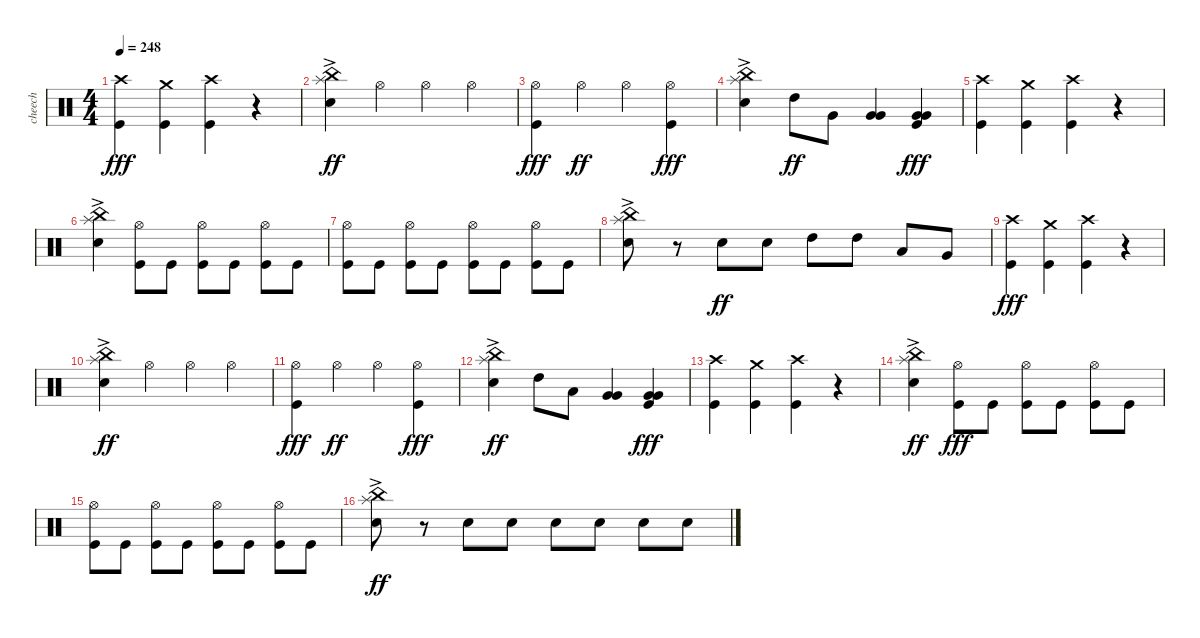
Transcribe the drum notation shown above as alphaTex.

\track ("cheech" "cheech") {instrument percussion}
\staff {score}
\articulation defaults
\ts (4 4)
\tempo 248
\clef neutral
\ks c
("Crash high (hit)" "Kick (hit)").4{dy fff} ("Crash medium (hit)" "Kick (hit)").4 ("Crash high (hit)" "Kick (hit)").4 r.4 |
("China (hit)"{ac} "Splash (hit)"{ac} "Electric Snare (hit)").4{dy ff} "Hi-Hat (open)".4 "Hi-Hat (open)".4 "Hi-Hat (open)".4 |
("Hi-Hat (open)" "Kick (hit)").4{dy fff} "Hi-Hat (open)".4{dy ff} "Hi-Hat (open)".4 ("Hi-Hat (open)" "Kick (hit)").4{dy fff} |
("China (hit)"{ac} "Splash (hit)"{ac} "Electric Snare (hit)").4 "High Tom (hit)".8{dy ff} "Very Low Tom (hit)".8 ("Very Low Tom (hit)" "Very Low Tom (hit)").4 ("Very Low Tom (hit)" "Very Low Tom (hit)" "Kick (hit)").4{dy fff} |
("Crash high (hit)" "Kick (hit)").4 ("Crash medium (hit)" "Kick (hit)").4 ("Crash high (hit)" "Kick (hit)").4 r.4 |
("China (hit)"{ac} "Splash (hit)"{ac} "Electric Snare (hit)").4 ("Hi-Hat (open)" "Kick (hit)").8 "Kick (hit)".8 ("Hi-Hat (open)" "Kick (hit)").8 "Kick (hit)".8 ("Hi-Hat (open)" "Kick (hit)").8 "Kick (hit)".8 |
("Hi-Hat (open)" "Kick (hit)").8 "Kick (hit)".8 ("Hi-Hat (open)" "Kick (hit)").8 "Kick (hit)".8 ("Hi-Hat (open)" "Kick (hit)").8 "Kick (hit)".8 ("Hi-Hat (open)" "Kick (hit)").8 "Kick (hit)".8 |
("China (hit)"{ac} "Splash (hit)"{ac} "Electric Snare (hit)").8 r.8 "Electric Snare (hit)".8{dy ff} "Electric Snare (hit)".8 "High Tom (hit)".8 "High Tom (hit)".8 "Low Tom (hit)".8 "Very Low Tom (hit)".8 |
("Crash high (hit)" "Kick (hit)").4{dy fff} ("Crash medium (hit)" "Kick (hit)").4 ("Crash high (hit)" "Kick (hit)").4 r.4 |
("China (hit)"{ac} "Splash (hit)"{ac} "Electric Snare (hit)").4{dy ff} "Hi-Hat (open)".4 "Hi-Hat (open)".4 "Hi-Hat (open)".4 |
("Hi-Hat (open)" "Kick (hit)").4{dy fff} "Hi-Hat (open)".4{dy ff} "Hi-Hat (open)".4 ("Hi-Hat (open)" "Kick (hit)").4{dy fff} |
("China (hit)"{ac} "Splash (hit)"{ac} "Electric Snare (hit)").4{dy ff} "High Tom (hit)".8 "Low Tom (hit)".8 ("Very Low Tom (hit)" "Very Low Tom (hit)").4 ("Very Low Tom (hit)" "Very Low Tom (hit)" "Kick (hit)").4{dy fff} |
("Crash high (hit)" "Kick (hit)").4 ("Crash medium (hit)" "Kick (hit)").4 ("Crash high (hit)" "Kick (hit)").4 r.4 |
("China (hit)"{ac} "Splash (hit)"{ac} "Electric Snare (hit)").4{dy ff} ("Hi-Hat (open)" "Kick (hit)").8{dy fff} "Kick (hit)".8 ("Hi-Hat (open)" "Kick (hit)").8 "Kick (hit)".8 ("Hi-Hat (open)" "Kick (hit)").8 "Kick (hit)".8 |
("Hi-Hat (open)" "Kick (hit)").8 "Kick (hit)".8 ("Hi-Hat (open)" "Kick (hit)").8 "Kick (hit)".8 ("Hi-Hat (open)" "Kick (hit)").8 "Kick (hit)".8 ("Hi-Hat (open)" "Kick (hit)").8 "Kick (hit)".8 |
("China (hit)"{ac} "Splash (hit)"{ac} "Electric Snare (hit)").8{dy ff} r.8 "Electric Snare (hit)".8 "Electric Snare (hit)".8 "Electric Snare (hit)".8 "Electric Snare (hit)".8 "Electric Snare (hit)".8 "Electric Snare (hit)".8
